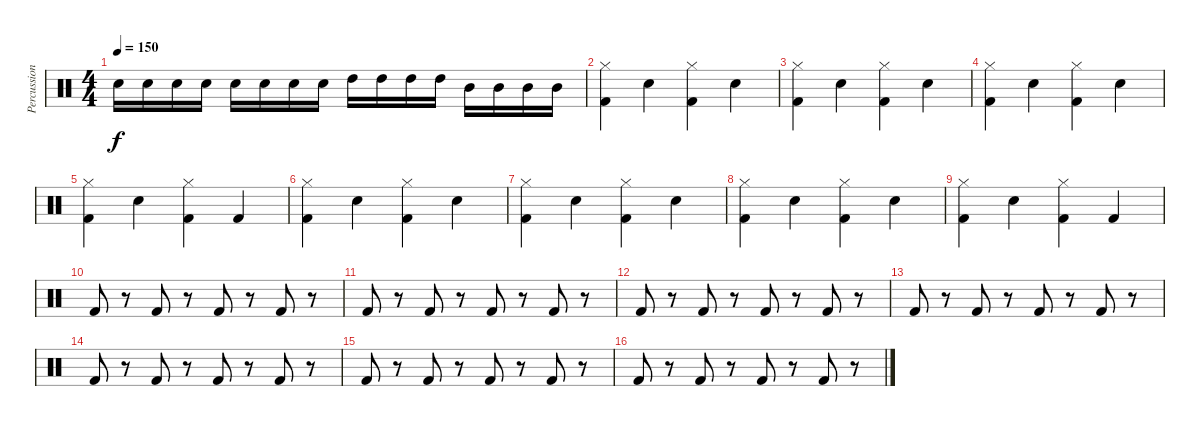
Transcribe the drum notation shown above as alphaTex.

\track ("Percussion" "Percussion") {instrument percussion}
\staff {score}
\articulation defaults
\ts (4 4)
\tempo 150
\clef neutral
\ks c "Snare (hit) 2".16{dy f} "Snare (hit) 2".16 "Snare (hit) 2".16 "Snare (hit) 2".16 "Electric Snare (hit)".16 "Electric Snare (hit)".16 "Electric Snare (hit)".16 "Electric Snare (hit)".16 "High Tom (hit)".16 "High Tom (hit)".16 "High Tom (hit)".16 "High Tom (hit)".16 "Mid Tom (hit)".16 "Mid Tom (hit)".16 "Mid Tom (hit)".16 "Mid Tom (hit)".16
|
("Hi-Hat (closed)" "Kick (hit) 2").4 "Snare (hit) 2".4 ("Hi-Hat (closed)" "Kick (hit) 2").4 "Snare (hit) 2".4 |
("Hi-Hat (closed)" "Kick (hit) 2").4 "Snare (hit) 2".4 ("Hi-Hat (closed)" "Kick (hit) 2").4 "Snare (hit) 2".4 |
("Hi-Hat (closed)" "Kick (hit) 2").4 "Snare (hit) 2".4 ("Hi-Hat (closed)" "Kick (hit) 2").4 "Snare (hit) 2".4 |
("Hi-Hat (closed)" "Kick (hit) 2").4 "Snare (hit) 2".4 ("Hi-Hat (closed)" "Kick (hit) 2").4 "Kick (hit) 2".4 |
("Hi-Hat (closed)" "Kick (hit) 2").4 "Snare (hit) 2".4 ("Hi-Hat (closed)" "Kick (hit) 2").4 "Snare (hit) 2".4 |
("Hi-Hat (closed)" "Kick (hit) 2").4 "Snare (hit) 2".4 ("Hi-Hat (closed)" "Kick (hit) 2").4 "Snare (hit) 2".4 |
("Hi-Hat (closed)" "Kick (hit) 2").4 "Snare (hit) 2".4 ("Hi-Hat (closed)" "Kick (hit) 2").4 "Snare (hit) 2".4 |
("Hi-Hat (closed)" "Kick (hit) 2").4 "Snare (hit) 2".4 ("Hi-Hat (closed)" "Kick (hit) 2").4 "Kick (hit) 2".4 |
"Kick (hit) 2".8 r.8 "Kick (hit) 2".8 r.8 "Kick (hit) 2".8 r.8 "Kick (hit) 2".8 r.8 |
"Kick (hit) 2".8 r.8 "Kick (hit) 2".8 r.8 "Kick (hit) 2".8 r.8 "Kick (hit) 2".8 r.8 |
"Kick (hit) 2".8 r.8 "Kick (hit) 2".8 r.8 "Kick (hit) 2".8 r.8 "Kick (hit) 2".8 r.8 |
"Kick (hit) 2".8 r.8 "Kick (hit) 2".8 r.8 "Kick (hit) 2".8 r.8 "Kick (hit) 2".8 r.8 |
"Kick (hit) 2".8 r.8 "Kick (hit) 2".8 r.8 "Kick (hit) 2".8 r.8 "Kick (hit) 2".8 r.8 |
"Kick (hit) 2".8 r.8 "Kick (hit) 2".8 r.8 "Kick (hit) 2".8 r.8 "Kick (hit) 2".8 r.8 |
"Kick (hit) 2".8 r.8 "Kick (hit) 2".8 r.8 "Kick (hit) 2".8 r.8 "Kick (hit) 2".8 r.8
